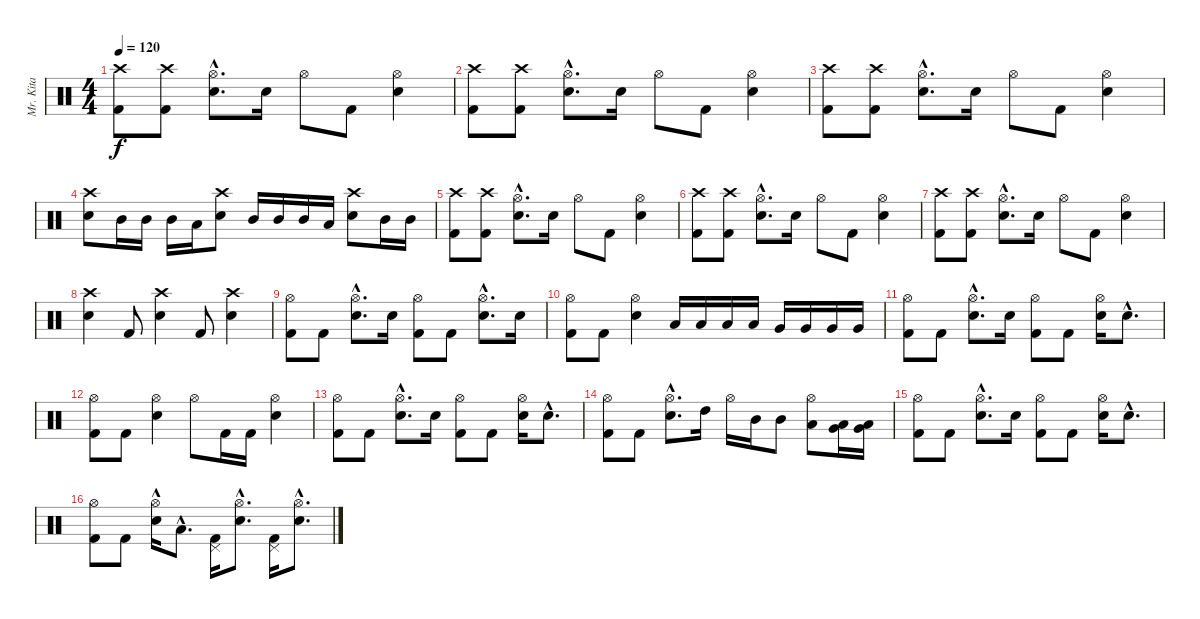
\track ("Mr. Kita" "Mr. Kita") {instrument percussion}
\staff {score}
\articulation defaults
\ts (4 4)
\tempo 120
\clef neutral
\ks c
("Crash high (hit)" "Kick (hit) 2").8{dy f} ("Crash high (hit)" "Kick (hit) 2").8 ("Hi-Hat (open)"{hac} "Snare (hit) 2"{hac}).8{d} "Snare (hit) 2".16 "Hi-Hat (open)".8 "Kick (hit) 2".8 ("Hi-Hat (open)" "Snare (hit) 2").4 |
("Crash high (hit)" "Kick (hit) 2").8 ("Crash high (hit)" "Kick (hit) 2").8 ("Hi-Hat (open)"{hac} "Snare (hit) 2"{hac}).8{d} "Snare (hit) 2".16 "Hi-Hat (open)".8 "Kick (hit) 2".8 ("Hi-Hat (open)" "Snare (hit) 2").4 |
("Crash high (hit)" "Kick (hit) 2").8 ("Crash high (hit)" "Kick (hit) 2").8 ("Hi-Hat (open)"{hac} "Snare (hit) 2"{hac}).8{d} "Snare (hit) 2".16 "Hi-Hat (open)".8 "Kick (hit) 2".8 ("Hi-Hat (open)" "Snare (hit) 2").4 |
("Crash high (hit)" "Snare (hit) 2").8 "Mid Tom (hit)".16 "Mid Tom (hit)".16 "Mid Tom (hit)".16 "Low Floor Tom (hit)".16 ("Crash high (hit)" "Snare (hit) 2").8 "Mid Tom (hit)".16 "Mid Tom (hit)".16 "Mid Tom (hit)".16 "Low Floor Tom (hit)".16 ("Crash high (hit)" "Snare (hit) 2").8 "Mid Tom (hit)".16 "Mid Tom (hit)".16 |
("Crash high (hit)" "Kick (hit) 2").8 ("Crash high (hit)" "Kick (hit) 2").8 ("Hi-Hat (open)"{hac} "Snare (hit) 2"{hac}).8{d} "Snare (hit) 2".16 "Hi-Hat (open)".8 "Kick (hit) 2".8 ("Hi-Hat (open)" "Snare (hit) 2").4 |
("Crash high (hit)" "Kick (hit) 2").8 ("Crash high (hit)" "Kick (hit) 2").8 ("Hi-Hat (open)"{hac} "Snare (hit) 2"{hac}).8{d} "Snare (hit) 2".16 "Hi-Hat (open)".8 "Kick (hit) 2".8 ("Hi-Hat (open)" "Snare (hit) 2").4 |
("Crash high (hit)" "Kick (hit) 2").8 ("Crash high (hit)" "Kick (hit) 2").8 ("Hi-Hat (open)"{hac} "Snare (hit) 2"{hac}).8{d} "Snare (hit) 2".16 "Hi-Hat (open)".8 "Kick (hit) 2".8 ("Hi-Hat (open)" "Snare (hit) 2").4 |
("Crash high (hit)" "Snare (hit) 2").4 "Kick (hit) 2".8 ("Crash high (hit)" "Snare (hit) 2").4 "Kick (hit) 2".8 ("Crash high (hit)" "Snare (hit) 2").4 |
("Hi-Hat (open)" "Kick (hit) 2").8 "Kick (hit) 2".8 ("Hi-Hat (open)"{hac} "Snare (hit) 2"{hac}).8{d} "Snare (hit) 2".16 ("Hi-Hat (open)" "Kick (hit) 2").8 "Kick (hit) 2".8 ("Hi-Hat (open)"{hac} "Snare (hit) 2"{hac}).8{d} "Snare (hit) 2".16 |
("Hi-Hat (open)" "Kick (hit) 2").8 "Kick (hit) 2".8 ("Hi-Hat (open)" "Snare (hit) 2").4 "Low Tom (hit)".16 "Low Tom (hit)".16 "Low Tom (hit)".16 "Low Tom (hit)".16 "Very Low Tom (hit)".16 "Very Low Tom (hit)".16 "Very Low Tom (hit)".16 "Very Low Tom (hit)".16 |
("Hi-Hat (open)" "Kick (hit) 2").8 "Kick (hit) 2".8 ("Hi-Hat (open)"{hac} "Snare (hit) 2"{hac}).8{d} "Snare (hit) 2".16 ("Hi-Hat (open)" "Kick (hit) 2").8 "Kick (hit) 2".8 ("Hi-Hat (open)" "Snare (hit) 2").16 "Snare (hit) 2"{hac}.8{d} |
("Hi-Hat (open)" "Kick (hit) 2").8 "Kick (hit) 2".8 ("Hi-Hat (open)" "Snare (hit) 2").4 "Hi-Hat (open)".8 "Kick (hit) 2".16 "Kick (hit) 2".16 ("Hi-Hat (open)" "Snare (hit) 2").4 |
("Hi-Hat (open)" "Kick (hit) 2").8 "Kick (hit) 2".8 ("Hi-Hat (open)"{hac} "Snare (hit) 2"{hac}).8{d} "Snare (hit) 2".16 ("Hi-Hat (open)" "Kick (hit) 2").8 "Kick (hit) 2".8 ("Hi-Hat (open)" "Snare (hit) 2").16 "Snare (hit) 2"{hac}.8{d} |
("Hi-Hat (open)" "Kick (hit) 2").8 "Kick (hit) 2".8 ("Hi-Hat (open)"{hac} "Snare (hit) 2"{hac}).8{d} "High Tom (hit)".16 "Hi-Hat (open)".16 "Mid Tom (hit)".16 "Mid Tom (hit)".8 ("Hi-Hat (open)" "Low Tom (hit)").8 ("Low Floor Tom (hit)" "Very Low Tom (hit)").16 ("Low Floor Tom (hit)" "Very Low Tom (hit)").16 |
("Hi-Hat (open)" "Kick (hit) 2").8 "Kick (hit) 2".8 ("Hi-Hat (open)"{hac} "Snare (hit) 2"{hac}).8{d} "Snare (hit) 2".16 ("Hi-Hat (open)" "Kick (hit) 2").8 "Kick (hit) 2".8 ("Hi-Hat (open)" "Snare (hit) 2").16 "Snare (hit) 2"{hac}.8{d} |
("Hi-Hat (open)" "Kick (hit) 2").8 "Kick (hit) 2".8 ("Hi-Hat (open)" "Snare (hit) 2"{hac}).16 "Low Floor Tom (hit)"{hac}.8{d} ("Pedal Hi-Hat (hit)" "Kick (hit) 2").16 ("Hi-Hat (open)"{hac} "Snare (hit) 2"{hac}).8{d} ("Pedal Hi-Hat (hit)" "Kick (hit) 2").16 ("Hi-Hat (open)"{hac} "Snare (hit) 2"{hac}).8{d}
